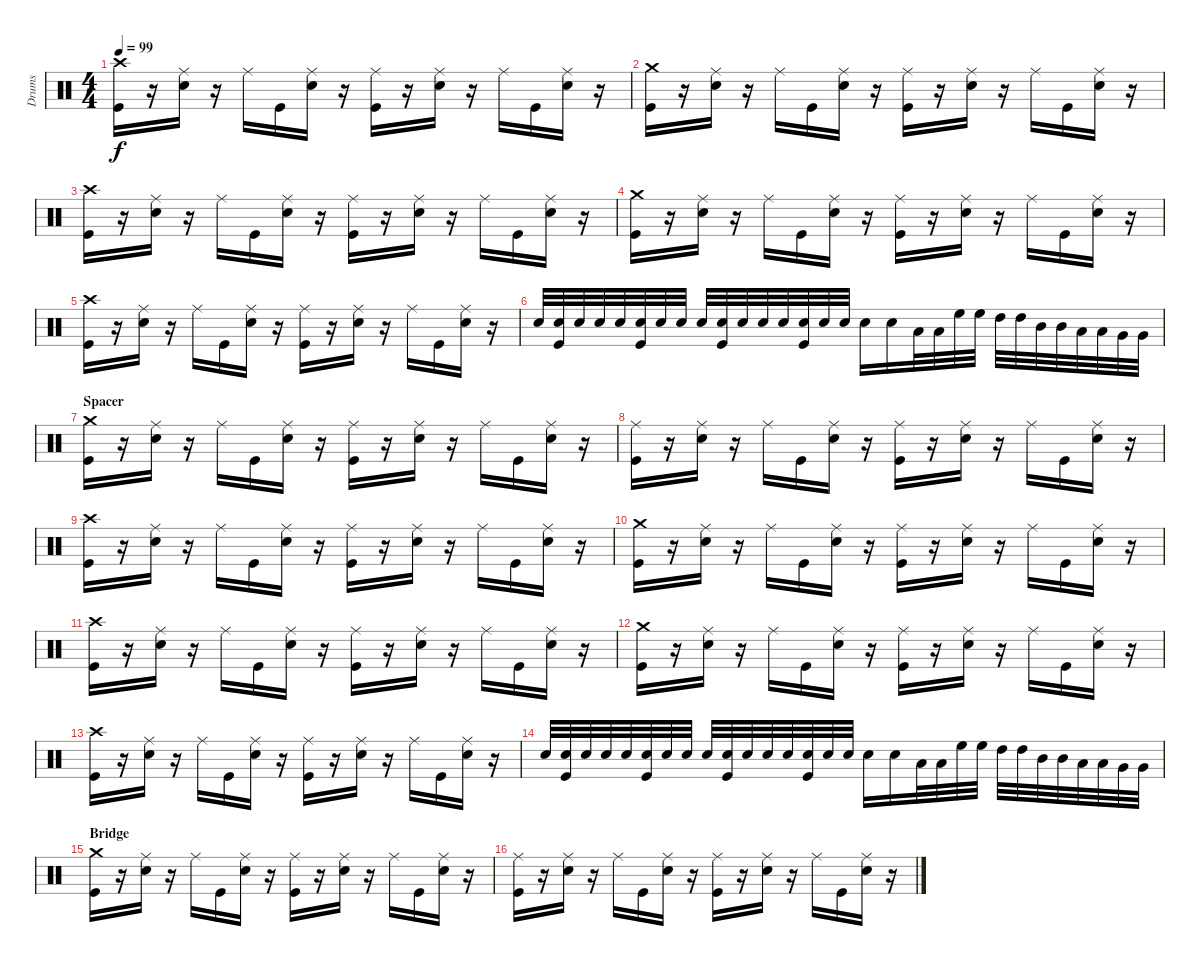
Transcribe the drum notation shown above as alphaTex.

\track ("Drums" "Drums") {instrument percussion}
\staff {score}
\articulation defaults
\ts (4 4)
\tempo 99
\clef neutral
\ks c
("Crash high (hit)" "Kick (hit)").16{dy f} r.16 ("Ride (middle)" "Electric Snare (hit)").16 r.16 "Ride (middle)".16 "Kick (hit)".16 ("Ride (middle)" "Electric Snare (hit)").16 r.16 ("Ride (middle)" "Kick (hit)").16 r.16 ("Ride (middle)" "Electric Snare (hit)").16 r.16 "Ride (middle)".16 "Kick (hit)".16 ("Ride (middle)" "Electric Snare (hit)").16 r.16 |
("Crash medium (hit)" "Kick (hit)").16 r.16 ("Ride (middle)" "Electric Snare (hit)").16 r.16 "Ride (middle)".16 "Kick (hit)".16 ("Ride (middle)" "Electric Snare (hit)").16 r.16 ("Ride (middle)" "Kick (hit)").16 r.16 ("Ride (middle)" "Electric Snare (hit)").16 r.16 "Ride (middle)".16 "Kick (hit)".16 ("Ride (middle)" "Electric Snare (hit)").16 r.16 |
("Crash high (hit)" "Kick (hit)").16 r.16 ("Ride (middle)" "Electric Snare (hit)").16 r.16 "Ride (middle)".16 "Kick (hit)".16 ("Ride (middle)" "Electric Snare (hit)").16 r.16 ("Ride (middle)" "Kick (hit)").16 r.16 ("Ride (middle)" "Electric Snare (hit)").16 r.16 "Ride (middle)".16 "Kick (hit)".16 ("Ride (middle)" "Electric Snare (hit)").16 r.16 |
("Crash medium (hit)" "Kick (hit)").16 r.16 ("Ride (middle)" "Electric Snare (hit)").16 r.16 "Ride (middle)".16 "Kick (hit)".16 ("Ride (middle)" "Electric Snare (hit)").16 r.16 ("Ride (middle)" "Kick (hit)").16 r.16 ("Ride (middle)" "Electric Snare (hit)").16 r.16 "Ride (middle)".16 "Kick (hit)".16 ("Ride (middle)" "Electric Snare (hit)").16 r.16 |
("Crash high (hit)" "Kick (hit)").16 r.16 ("Ride (middle)" "Electric Snare (hit)").16 r.16 "Ride (middle)".16 "Kick (hit)".16 ("Ride (middle)" "Electric Snare (hit)").16 r.16 ("Ride (middle)" "Kick (hit)").16 r.16 ("Ride (middle)" "Electric Snare (hit)").16 r.16 "Ride (middle)".16 "Kick (hit)".16 ("Ride (middle)" "Electric Snare (hit)").16 r.16 |
"Electric Snare (hit)".32 ("Electric Snare (hit)" "Kick (hit)").32 "Electric Snare (hit)".32 "Electric Snare (hit)".32 "Electric Snare (hit)".32 ("Electric Snare (hit)" "Kick (hit)").32 "Electric Snare (hit)".32 "Electric Snare (hit)".32 "Electric Snare (hit)".32 ("Electric Snare (hit)" "Kick (hit)").32 "Electric Snare (hit)".32 "Electric Snare (hit)".32 "Electric Snare (hit)".32 ("Electric Snare (hit)" "Kick (hit)").32 "Electric Snare (hit)".32 "Electric Snare (hit)".32 "Electric Snare (hit)".16 "Electric Snare (hit)".16 "Low Floor Tom (hit)".32 "Low Floor Tom (hit)".32 "High Floor Tom (hit)".32 "High Floor Tom (hit)".32 "High Tom (hit)".32 "High Tom (hit)".32 "Mid Tom (hit)".32 "Mid Tom (hit)".32 "Low Tom (hit)".32 "Low Tom (hit)".32 "Very Low Tom (hit)".32 "Very Low Tom (hit)".32 |
\section ("" "Spacer")
("Crash medium (hit)" "Kick (hit)").16 r.16 ("Ride (middle)" "Electric Snare (hit)").16 r.16 "Ride (middle)".16 "Kick (hit)".16 ("Ride (middle)" "Electric Snare (hit)").16 r.16 ("Ride (middle)" "Kick (hit)").16 r.16 ("Ride (middle)" "Electric Snare (hit)").16 r.16 "Ride (middle)".16 "Kick (hit)".16 ("Ride (middle)" "Electric Snare (hit)").16 r.16 |
("Ride (middle)" "Kick (hit)").16 r.16 ("Ride (middle)" "Electric Snare (hit)").16 r.16 "Ride (middle)".16 "Kick (hit)".16 ("Ride (middle)" "Electric Snare (hit)").16 r.16 ("Ride (middle)" "Kick (hit)").16 r.16 ("Ride (middle)" "Electric Snare (hit)").16 r.16 "Ride (middle)".16 "Kick (hit)".16 ("Ride (middle)" "Electric Snare (hit)").16 r.16 |
("Crash high (hit)" "Kick (hit)").16 r.16 ("Ride (middle)" "Electric Snare (hit)").16 r.16 "Ride (middle)".16 "Kick (hit)".16 ("Ride (middle)" "Electric Snare (hit)").16 r.16 ("Ride (middle)" "Kick (hit)").16 r.16 ("Ride (middle)" "Electric Snare (hit)").16 r.16 "Ride (middle)".16 "Kick (hit)".16 ("Ride (middle)" "Electric Snare (hit)").16 r.16 |
("Crash medium (hit)" "Kick (hit)").16 r.16 ("Ride (middle)" "Electric Snare (hit)").16 r.16 "Ride (middle)".16 "Kick (hit)".16 ("Ride (middle)" "Electric Snare (hit)").16 r.16 ("Ride (middle)" "Kick (hit)").16 r.16 ("Ride (middle)" "Electric Snare (hit)").16 r.16 "Ride (middle)".16 "Kick (hit)".16 ("Ride (middle)" "Electric Snare (hit)").16 r.16 |
("Crash high (hit)" "Kick (hit)").16 r.16 ("Ride (middle)" "Electric Snare (hit)").16 r.16 "Ride (middle)".16 "Kick (hit)".16 ("Ride (middle)" "Electric Snare (hit)").16 r.16 ("Ride (middle)" "Kick (hit)").16 r.16 ("Ride (middle)" "Electric Snare (hit)").16 r.16 "Ride (middle)".16 "Kick (hit)".16 ("Ride (middle)" "Electric Snare (hit)").16 r.16 |
("Crash medium (hit)" "Kick (hit)").16 r.16 ("Ride (middle)" "Electric Snare (hit)").16 r.16 "Ride (middle)".16 "Kick (hit)".16 ("Ride (middle)" "Electric Snare (hit)").16 r.16 ("Ride (middle)" "Kick (hit)").16 r.16 ("Ride (middle)" "Electric Snare (hit)").16 r.16 "Ride (middle)".16 "Kick (hit)".16 ("Ride (middle)" "Electric Snare (hit)").16 r.16 |
("Crash high (hit)" "Kick (hit)").16 r.16 ("Ride (middle)" "Electric Snare (hit)").16 r.16 "Ride (middle)".16 "Kick (hit)".16 ("Ride (middle)" "Electric Snare (hit)").16 r.16 ("Ride (middle)" "Kick (hit)").16 r.16 ("Ride (middle)" "Electric Snare (hit)").16 r.16 "Ride (middle)".16 "Kick (hit)".16 ("Ride (middle)" "Electric Snare (hit)").16 r.16 |
"Electric Snare (hit)".32 ("Electric Snare (hit)" "Kick (hit)").32 "Electric Snare (hit)".32 "Electric Snare (hit)".32 "Electric Snare (hit)".32 ("Electric Snare (hit)" "Kick (hit)").32 "Electric Snare (hit)".32 "Electric Snare (hit)".32 "Electric Snare (hit)".32 ("Electric Snare (hit)" "Kick (hit)").32 "Electric Snare (hit)".32 "Electric Snare (hit)".32 "Electric Snare (hit)".32 ("Electric Snare (hit)" "Kick (hit)").32 "Electric Snare (hit)".32 "Electric Snare (hit)".32 "Electric Snare (hit)".16 "Electric Snare (hit)".16 "Low Floor Tom (hit)".32 "Low Floor Tom (hit)".32 "High Floor Tom (hit)".32 "High Floor Tom (hit)".32 "High Tom (hit)".32 "High Tom (hit)".32 "Mid Tom (hit)".32 "Mid Tom (hit)".32 "Low Tom (hit)".32 "Low Tom (hit)".32 "Very Low Tom (hit)".32 "Very Low Tom (hit)".32 |
\section ("" "Bridge")
("Crash medium (hit)" "Kick (hit)").16 r.16 ("Ride (middle)" "Electric Snare (hit)").16 r.16 "Ride (middle)".16 "Kick (hit)".16 ("Ride (middle)" "Electric Snare (hit)").16 r.16 ("Ride (middle)" "Kick (hit)").16 r.16 ("Ride (middle)" "Electric Snare (hit)").16 r.16 "Ride (middle)".16 "Kick (hit)".16 ("Ride (middle)" "Electric Snare (hit)").16 r.16 |
("Ride (middle)" "Kick (hit)").16 r.16 ("Ride (middle)" "Electric Snare (hit)").16 r.16 "Ride (middle)".16 "Kick (hit)".16 ("Ride (middle)" "Electric Snare (hit)").16 r.16 ("Ride (middle)" "Kick (hit)").16 r.16 ("Ride (middle)" "Electric Snare (hit)").16 r.16 "Ride (middle)".16 "Kick (hit)".16 ("Ride (middle)" "Electric Snare (hit)").16 r.16
